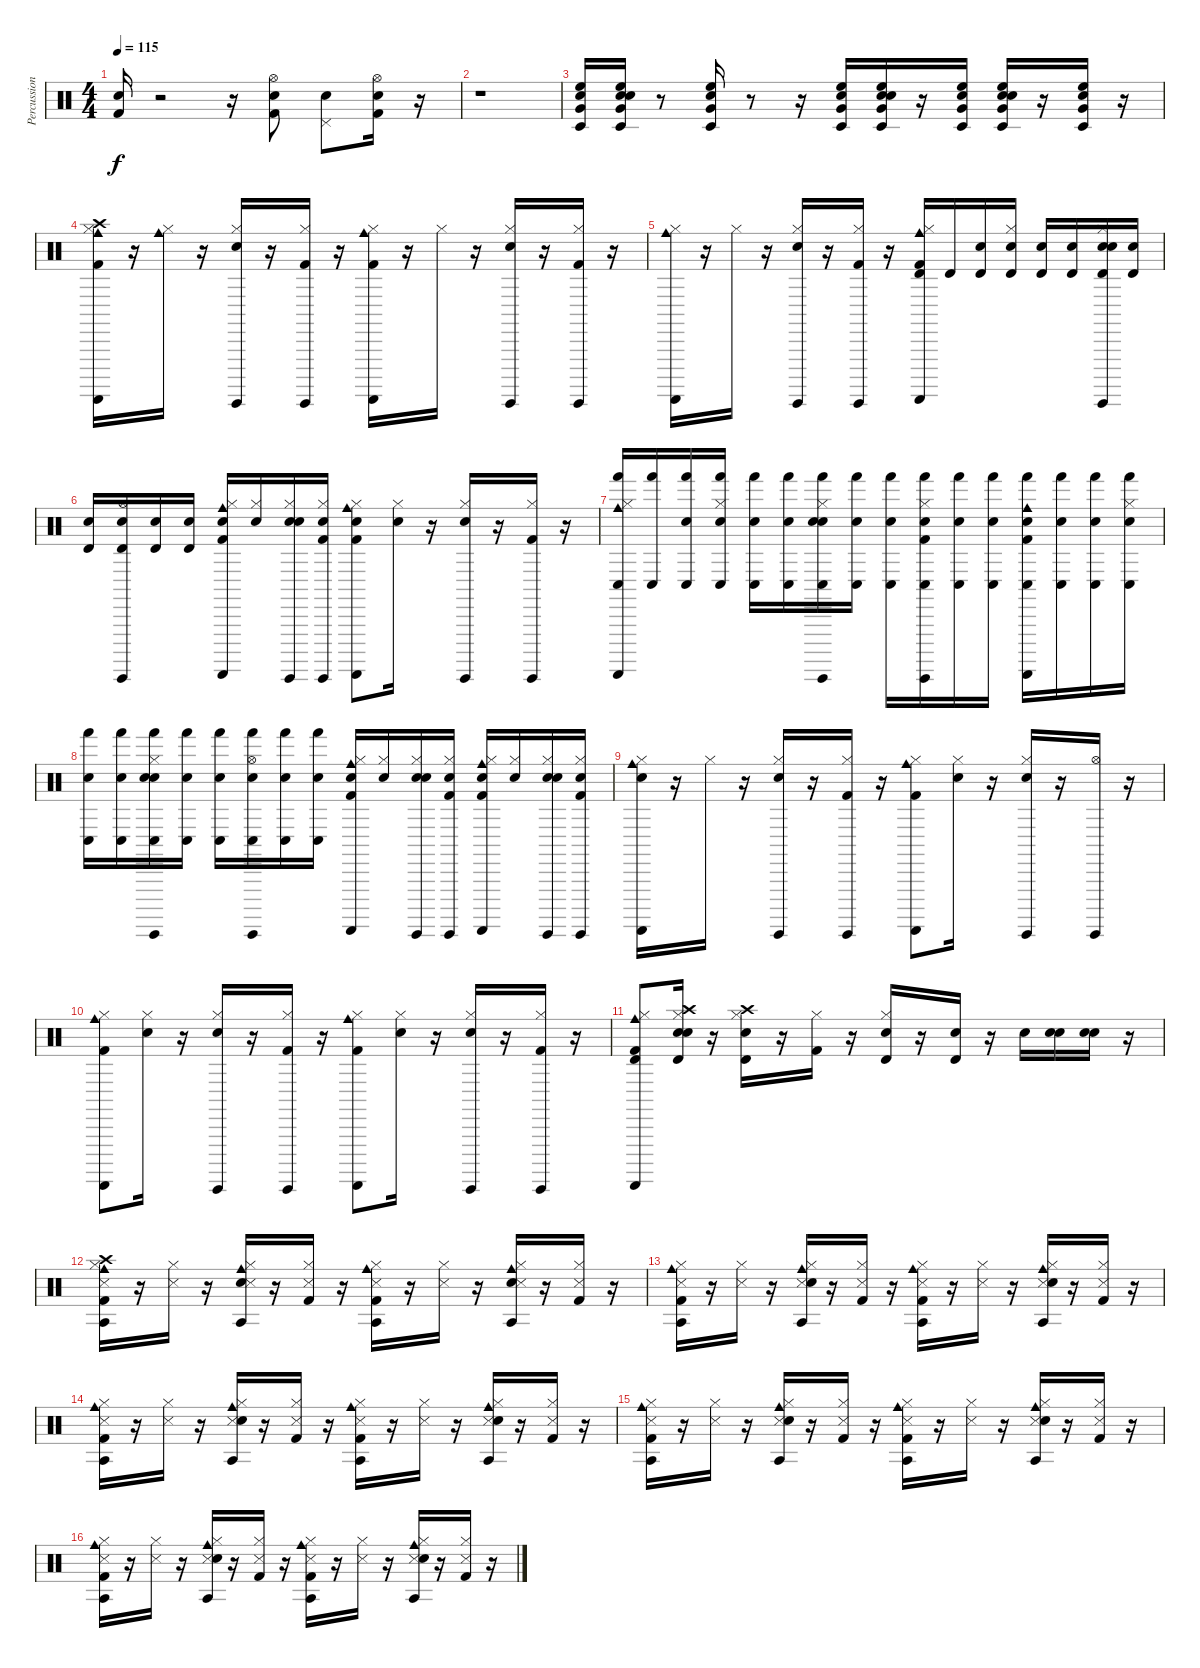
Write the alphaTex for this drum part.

\track ("Percussion" "Percussion") {instrument percussion}
\staff {score}
\articulation defaults
\ts (4 4)
\tempo 115
\clef neutral
\ks c
("Kick (hit) 2" "Snare (hit) 2").16{dy f} r.2 r.16 ("Snare (hit) 2" "Kick (hit) 2" "Hi-Hat (open)").8 ("Snare (hit)" "Pedal Hi-Hat (hit)").8 ("Kick (hit) 2" "Snare (hit) 2" "Hi-Hat (open)").16 r.16 |
r.1 |
("Timbale low (hit)" "Electric Snare (hit)" "High Floor Tom (hit)" "Very Low Tom (hit)").16 ("Snare (hit)" "Very Low Tom (hit)" "Timbale low (hit)" "Electric Snare (hit)" "High Floor Tom (hit)").16 r.8 ("Very Low Tom (hit)" "Timbale low (hit)" "High Floor Tom (hit)" "Electric Snare (hit)").16 r.8 r.16 ("Very Low Tom (hit)" "Electric Snare (hit)" "Timbale low (hit)" "High Floor Tom (hit)").16 ("Snare (hit)" "Very Low Tom (hit)" "Timbale low (hit)" "Electric Snare (hit)" "High Floor Tom (hit)").16 r.16 ("Very Low Tom (hit)" "High Floor Tom (hit)" "Timbale low (hit)" "Electric Snare (hit)").16 ("Snare (hit)" "Very Low Tom (hit)" "High Floor Tom (hit)" "Electric Snare (hit)" "Timbale low (hit)").16 r.16 ("Very Low Tom (hit)" "Electric Snare (hit)" "High Floor Tom (hit)" "Timbale low (hit)").16 r.16 |
("Kick (hit) 2" "Hi-Hat (closed)" "Crash high (hit)" "Guiro (scrap-return)" "Cowbell medium (hit)").16 r.16 ("Cowbell medium (hit)" "Hi-Hat (closed)").16 r.16 ("Guiro (hit)" "Snare (hit) 2" "Hi-Hat (closed)").16 r.16 ("Hi-Hat (closed)" "Kick (hit) 2" "Guiro (hit)").16 r.16 ("Guiro (scrap-return)" "Kick (hit) 2" "Hi-Hat (closed)" "Cowbell medium (hit)").16 r.16 "Hi-Hat (closed)".16 r.16 ("Hi-Hat (closed)" "Guiro (hit)" "Snare (hit) 2").16 r.16 ("Kick (hit) 2" "Guiro (hit)" "Hi-Hat (closed)").16 r.16 |
("Cowbell medium (hit)" "Guiro (scrap-return)" "Hi-Hat (closed)").16 r.16 "Hi-Hat (closed)".16 r.16 ("Guiro (hit)" "Snare (hit) 2" "Hi-Hat (closed)").16 r.16 ("Hi-Hat (closed)" "Kick (hit) 2" "Guiro (hit)").16 r.16 ("Guiro (scrap-return)" "Kick (hit) 2" "Hi-Hat (closed)" "Timbale high (hit)" "Cowbell medium (hit)").16 "Timbale high (hit)".16 ("Snare (hit)" "Timbale high (hit)").16 ("Snare (hit)" "Timbale high (hit)" "Hi-Hat (closed)").16 ("Snare (hit)" "Timbale high (hit)").16 ("Snare (hit)" "Timbale high (hit)").16 ("Snare (hit)" "Timbale high (hit)" "Guiro (hit)" "Snare (hit) 2" "Hi-Hat (closed)").16 ("Snare (hit)" "Timbale high (hit)").16 |
("Snare (hit)" "Timbale high (hit)").16 ("Snare (hit)" "Timbale high (hit)" "Hi-Hat (open)" "Guiro (hit)").16 ("Snare (hit)" "Timbale high (hit)").16 ("Snare (hit)" "Timbale high (hit)").16 ("Snare (hit)" "Guiro (scrap-return)" "Kick (hit) 2" "Hi-Hat (closed)" "Cowbell medium (hit)").16 ("Snare (hit)" "Hi-Hat (closed)").16 ("Snare (hit)" "Guiro (hit)" "Snare (hit) 2" "Hi-Hat (closed)").16 ("Snare (hit)" "Hi-Hat (closed)" "Kick (hit) 2" "Guiro (hit)").16 ("Snare (hit)" "Guiro (scrap-return)" "Kick (hit) 2" "Hi-Hat (closed)" "Cowbell medium (hit)").8 ("Snare (hit)" "Hi-Hat (closed)").16 r.16 ("Guiro (hit)" "Snare (hit) 2" "Hi-Hat (closed)").16 r.16 ("Guiro (hit)" "Hi-Hat (closed)" "Kick (hit) 2").16 r.16 |
("Conga low (hit)" "Guiro (scrap-return)" "Hi-Hat (closed)" "Hand (hit)" "Cowbell medium (hit)").16 ("Conga low (hit)" "Hand (hit)").16 ("Snare (hit)" "Conga low (hit)" "Hand (hit)").16 ("Snare (hit)" "Conga low (hit)" "Hi-Hat (closed)" "Hand (hit)").16 ("Snare (hit)" "Conga low (hit)" "Hand (hit)").16 ("Snare (hit)" "Conga low (hit)" "Hand (hit)").16 ("Snare (hit)" "Conga low (hit)" "Hand (hit)" "Guiro (hit)" "Snare (hit) 2" "Hi-Hat (closed)").16 ("Snare (hit)" "Conga low (hit)" "Hand (hit)").16 ("Snare (hit)" "Conga low (hit)" "Hand (hit)").16 ("Snare (hit)" "Conga low (hit)" "Hand (hit)" "Hi-Hat (closed)" "Kick (hit) 2" "Guiro (hit)").16 ("Snare (hit)" "Conga low (hit)" "Hand (hit)").16 ("Snare (hit)" "Conga low (hit)" "Hand (hit)").16 ("Snare (hit)" "Cowbell medium (hit)" "Hand (hit)" "Guiro (scrap-return)" "Kick (hit) 2" "Conga low (hit)").16 ("Snare (hit)" "Conga low (hit)" "Hand (hit)").16 ("Snare (hit)" "Conga low (hit)" "Hand (hit)").16 ("Snare (hit)" "Conga low (hit)" "Hand (hit)" "Hi-Hat (closed)").16 |
("Snare (hit)" "Hand (hit)" "Conga low (hit)").16 ("Snare (hit)" "Conga low (hit)" "Hand (hit)").16 ("Snare (hit)" "Hand (hit)" "Guiro (hit)" "Snare (hit) 2" "Hi-Hat (closed)" "Conga low (hit)").16 ("Snare (hit)" "Conga low (hit)" "Hand (hit)").16 ("Snare (hit)" "Conga low (hit)" "Hand (hit)").16 ("Snare (hit)" "Conga low (hit)" "Hand (hit)" "Hi-Hat (open)" "Guiro (hit)").16 ("Snare (hit)" "Conga low (hit)" "Hand (hit)").16 ("Snare (hit)" "Conga low (hit)" "Hand (hit)").16 ("Snare (hit)" "Guiro (scrap-return)" "Kick (hit) 2" "Hi-Hat (closed)" "Cowbell medium (hit)").16 ("Snare (hit)" "Hi-Hat (closed)").16 ("Snare (hit)" "Guiro (hit)" "Snare (hit) 2" "Hi-Hat (closed)").16 ("Snare (hit)" "Hi-Hat (closed)" "Kick (hit) 2" "Guiro (hit)").16 ("Snare (hit)" "Cowbell medium (hit)" "Guiro (scrap-return)" "Kick (hit) 2" "Hi-Hat (closed)").16 ("Snare (hit)" "Hi-Hat (closed)").16 ("Snare (hit)" "Guiro (hit)" "Snare (hit) 2" "Hi-Hat (closed)").16 ("Snare (hit)" "Guiro (hit)" "Hi-Hat (closed)" "Kick (hit) 2").16 |
("Snare (hit)" "Cowbell medium (hit)" "Guiro (scrap-return)" "Hi-Hat (closed)").16 r.16 "Hi-Hat (closed)".16 r.16 ("Guiro (hit)" "Snare (hit) 2" "Hi-Hat (closed)").16 r.16 ("Hi-Hat (closed)" "Kick (hit) 2" "Guiro (hit)").16 r.16 ("Guiro (scrap-return)" "Kick (hit) 2" "Hi-Hat (closed)" "Cowbell medium (hit)").8 ("Snare (hit)" "Hi-Hat (closed)").16 r.16 ("Guiro (hit)" "Snare (hit) 2" "Hi-Hat (closed)").16 r.16 ("Hi-Hat (open)" "Guiro (hit)").16 r.16 |
("Guiro (scrap-return)" "Kick (hit) 2" "Hi-Hat (closed)" "Cowbell medium (hit)").8 ("Snare (hit)" "Hi-Hat (closed)").16 r.16 ("Guiro (hit)" "Snare (hit) 2" "Hi-Hat (closed)").16 r.16 ("Hi-Hat (closed)" "Kick (hit) 2" "Guiro (hit)").16 r.16 ("Guiro (scrap-return)" "Kick (hit) 2" "Hi-Hat (closed)" "Cowbell medium (hit)").8 ("Snare (hit)" "Hi-Hat (closed)").16 r.16 ("Guiro (hit)" "Snare (hit) 2" "Hi-Hat (closed)").16 r.16 ("Guiro (hit)" "Hi-Hat (closed)" "Kick (hit) 2").16 r.16 |
("Hi-Hat (closed)" "Guiro (scrap-return)" "Kick (hit) 2" "Timbale high (hit)" "Cowbell medium (hit)").8 ("Snare (hit)" "Crash high (hit)" "Hi-Hat (closed)" "Electric Snare (hit)" "Timbale high (hit)").16 r.16 ("Crash high (hit)" "Hi-Hat (closed)" "Electric Snare (hit)" "Timbale high (hit)").16 r.16 ("Hi-Hat (closed)" "Kick (hit) 2").16 r.16 ("Hi-Hat (closed)" "Timbale high (hit)" "Electric Snare (hit)").16 r.16 ("Electric Snare (hit)" "Timbale high (hit)").16 r.16 "Electric Snare (hit)".16 ("Snare (hit)" "Electric Snare (hit)").16 ("Snare (hit)" "Electric Snare (hit)").16 r.16 |
("Kick (hit) 2" "Hi-Hat (closed)" "Agogo tow (hit)" "Crash high (hit)" "Cowbell medium (hit)" "Snare (side stick) 3").16 r.16 ("Hi-Hat (closed)" "Snare (side stick) 3").16 r.16 ("Snare (hit) 2" "Hi-Hat (closed)" "Agogo tow (hit)" "Cowbell medium (hit)" "Snare (side stick) 3").16 r.16 ("Kick (hit) 2" "Hi-Hat (closed)" "Snare (side stick) 3").16 r.16 ("Kick (hit) 2" "Hi-Hat (closed)" "Agogo tow (hit)" "Cowbell medium (hit)" "Snare (side stick) 3").16 r.16 ("Hi-Hat (closed)" "Snare (side stick) 3").16 r.16 ("Snare (hit) 2" "Hi-Hat (closed)" "Agogo tow (hit)" "Cowbell medium (hit)" "Snare (side stick) 3").16 r.16 ("Kick (hit) 2" "Hi-Hat (closed)" "Snare (side stick) 3").16 r.16 |
("Cowbell medium (hit)" "Snare (side stick) 3" "Hi-Hat (closed)" "Agogo tow (hit)" "Kick (hit) 2").16 r.16 ("Snare (side stick) 3" "Hi-Hat (closed)").16 r.16 ("Cowbell medium (hit)" "Snare (side stick) 3" "Hi-Hat (closed)" "Agogo tow (hit)" "Snare (hit) 2").16 r.16 ("Snare (side stick) 3" "Hi-Hat (closed)" "Kick (hit) 2").16 r.16 ("Cowbell medium (hit)" "Snare (side stick) 3" "Hi-Hat (closed)" "Agogo tow (hit)" "Kick (hit) 2").16 r.16 ("Snare (side stick) 3" "Hi-Hat (closed)").16 r.16 ("Cowbell medium (hit)" "Snare (side stick) 3" "Hi-Hat (closed)" "Agogo tow (hit)" "Snare (hit) 2").16 r.16 ("Snare (side stick) 3" "Hi-Hat (closed)" "Kick (hit) 2").16 r.16 |
("Snare (side stick) 3" "Agogo tow (hit)" "Kick (hit) 2" "Cowbell medium (hit)" "Hi-Hat (closed)").16 r.16 ("Snare (side stick) 3" "Hi-Hat (closed)").16 r.16 ("Snare (side stick) 3" "Agogo tow (hit)" "Snare (hit) 2" "Cowbell medium (hit)" "Hi-Hat (closed)").16 r.16 ("Snare (side stick) 3" "Kick (hit) 2" "Hi-Hat (closed)").16 r.16 ("Snare (side stick) 3" "Agogo tow (hit)" "Kick (hit) 2" "Cowbell medium (hit)" "Hi-Hat (closed)").16 r.16 ("Snare (side stick) 3" "Hi-Hat (closed)").16 r.16 ("Snare (side stick) 3" "Agogo tow (hit)" "Snare (hit) 2" "Cowbell medium (hit)" "Hi-Hat (closed)").16 r.16 ("Snare (side stick) 3" "Kick (hit) 2" "Hi-Hat (closed)").16 r.16 |
("Cowbell medium (hit)" "Agogo tow (hit)" "Snare (side stick) 3" "Kick (hit) 2" "Hi-Hat (closed)").16 r.16 ("Snare (side stick) 3" "Hi-Hat (closed)").16 r.16 ("Cowbell medium (hit)" "Agogo tow (hit)" "Snare (side stick) 3" "Snare (hit) 2" "Hi-Hat (closed)").16 r.16 ("Snare (side stick) 3" "Kick (hit) 2" "Hi-Hat (closed)").16 r.16 ("Cowbell medium (hit)" "Agogo tow (hit)" "Snare (side stick) 3" "Kick (hit) 2" "Hi-Hat (closed)").16 r.16 ("Snare (side stick) 3" "Hi-Hat (closed)").16 r.16 ("Cowbell medium (hit)" "Agogo tow (hit)" "Snare (side stick) 3" "Snare (hit) 2" "Hi-Hat (closed)").16 r.16 ("Snare (side stick) 3" "Kick (hit) 2" "Hi-Hat (closed)").16 r.16 |
("Hi-Hat (closed)" "Cowbell medium (hit)" "Snare (side stick) 3" "Agogo tow (hit)" "Kick (hit) 2").16 r.16 ("Hi-Hat (closed)" "Snare (side stick) 3").16 r.16 ("Hi-Hat (closed)" "Cowbell medium (hit)" "Snare (side stick) 3" "Agogo tow (hit)" "Snare (hit) 2").16 r.16 ("Hi-Hat (closed)" "Snare (side stick) 3" "Kick (hit) 2").16 r.16 ("Hi-Hat (closed)" "Cowbell medium (hit)" "Snare (side stick) 3" "Agogo tow (hit)" "Kick (hit) 2").16 r.16 ("Hi-Hat (closed)" "Snare (side stick) 3").16 r.16 ("Hi-Hat (closed)" "Cowbell medium (hit)" "Snare (side stick) 3" "Agogo tow (hit)" "Snare (hit) 2").16 r.16 ("Hi-Hat (closed)" "Snare (side stick) 3" "Kick (hit) 2").16 r.16
